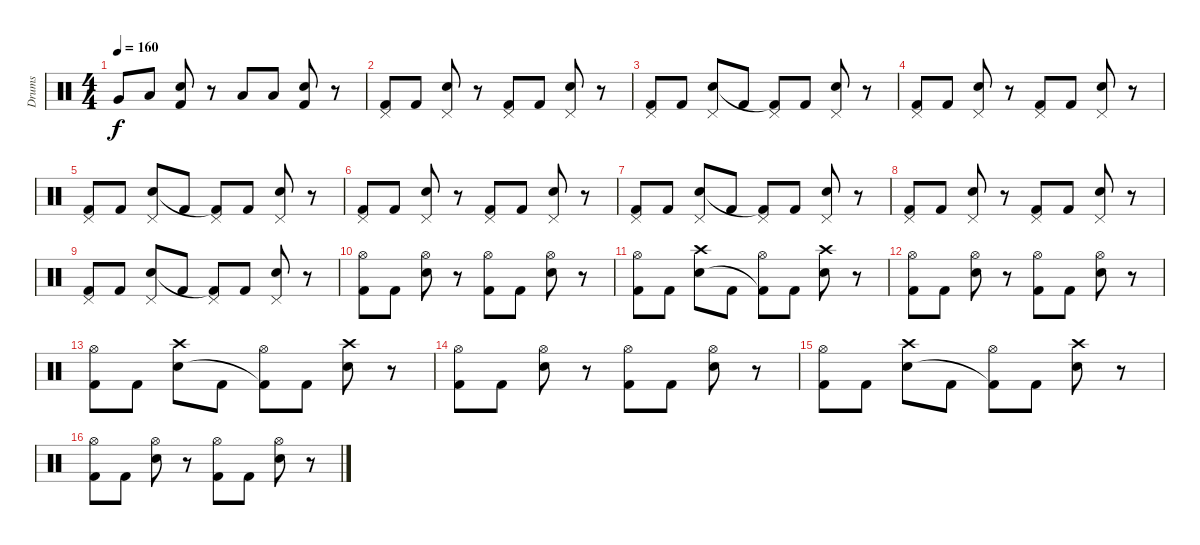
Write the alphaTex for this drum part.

\track ("Drums" "Drums") {instrument percussion}
\staff {score}
\articulation defaults
\ts (4 4)
\tempo 160
\clef neutral
\ks c "Very Low Tom (hit)".8{dy f} "Low Tom (hit)".8
("Snare (hit) 2" "Kick (hit) 2").8 r.8 "Low Tom (hit)".8 "Low Tom (hit)".8 ("Snare (hit) 2" "Kick (hit) 2").8 r.8 |
("Pedal Hi-Hat (hit)" "Kick (hit) 2").8 "Kick (hit) 2".8 ("Pedal Hi-Hat (hit)" "Snare (hit) 2").8 r.8 ("Pedal Hi-Hat (hit)" "Kick (hit) 2").8 "Kick (hit) 2".8 ("Pedal Hi-Hat (hit)" "Snare (hit) 2").8 r.8 |
("Pedal Hi-Hat (hit)" "Kick (hit) 2").8 "Kick (hit) 2".8 ("Pedal Hi-Hat (hit)" "Snare (hit) 2").8 "Kick (hit) 2".8 ("Pedal Hi-Hat (hit)" "Kick (hit) 2"{t}).8 "Kick (hit) 2".8 ("Pedal Hi-Hat (hit)" "Snare (hit) 2").8 r.8 |
("Pedal Hi-Hat (hit)" "Kick (hit) 2").8 "Kick (hit) 2".8 ("Pedal Hi-Hat (hit)" "Snare (hit) 2").8 r.8 ("Pedal Hi-Hat (hit)" "Kick (hit) 2").8 "Kick (hit) 2".8 ("Pedal Hi-Hat (hit)" "Snare (hit) 2").8 r.8 |
("Pedal Hi-Hat (hit)" "Kick (hit) 2").8 "Kick (hit) 2".8 ("Pedal Hi-Hat (hit)" "Snare (hit) 2").8 "Kick (hit) 2".8 ("Pedal Hi-Hat (hit)" "Kick (hit) 2"{t}).8 "Kick (hit) 2".8 ("Pedal Hi-Hat (hit)" "Snare (hit) 2").8 r.8 |
("Pedal Hi-Hat (hit)" "Kick (hit) 2").8 "Kick (hit) 2".8 ("Pedal Hi-Hat (hit)" "Snare (hit) 2").8 r.8 ("Pedal Hi-Hat (hit)" "Kick (hit) 2").8 "Kick (hit) 2".8 ("Pedal Hi-Hat (hit)" "Snare (hit) 2").8 r.8 |
("Pedal Hi-Hat (hit)" "Kick (hit) 2").8 "Kick (hit) 2".8 ("Pedal Hi-Hat (hit)" "Snare (hit) 2").8 "Kick (hit) 2".8 ("Pedal Hi-Hat (hit)" "Kick (hit) 2"{t}).8 "Kick (hit) 2".8 ("Pedal Hi-Hat (hit)" "Snare (hit) 2").8 r.8 |
("Pedal Hi-Hat (hit)" "Kick (hit) 2").8 "Kick (hit) 2".8 ("Pedal Hi-Hat (hit)" "Snare (hit) 2").8 r.8 ("Pedal Hi-Hat (hit)" "Kick (hit) 2").8 "Kick (hit) 2".8 ("Pedal Hi-Hat (hit)" "Snare (hit) 2").8 r.8 |
("Pedal Hi-Hat (hit)" "Kick (hit) 2").8 "Kick (hit) 2".8 ("Pedal Hi-Hat (hit)" "Snare (hit) 2").8 "Kick (hit) 2".8 ("Pedal Hi-Hat (hit)" "Kick (hit) 2"{t}).8 "Kick (hit) 2".8 ("Pedal Hi-Hat (hit)" "Snare (hit) 2").8 r.8 |
("Hi-Hat (open)" "Kick (hit) 2").8 "Kick (hit) 2".8 ("Hi-Hat (open)" "Snare (hit) 2").8 r.8 ("Hi-Hat (open)" "Kick (hit) 2").8 "Kick (hit) 2".8 ("Hi-Hat (open)" "Snare (hit) 2").8 r.8 |
("Hi-Hat (open)" "Kick (hit) 2").8 "Kick (hit) 2".8 ("Crash high (hit)" "Snare (hit) 2").8 "Kick (hit) 2".8 ("Hi-Hat (open)" "Kick (hit) 2"{t}).8 "Kick (hit) 2".8 ("Crash high (hit)" "Snare (hit) 2").8 r.8 |
("Hi-Hat (open)" "Kick (hit) 2").8 "Kick (hit) 2".8 ("Hi-Hat (open)" "Snare (hit) 2").8 r.8 ("Hi-Hat (open)" "Kick (hit) 2").8 "Kick (hit) 2".8 ("Hi-Hat (open)" "Snare (hit) 2").8 r.8 |
("Hi-Hat (open)" "Kick (hit) 2").8 "Kick (hit) 2".8 ("Crash high (hit)" "Snare (hit) 2").8 "Kick (hit) 2".8 ("Hi-Hat (open)" "Kick (hit) 2"{t}).8 "Kick (hit) 2".8 ("Crash high (hit)" "Snare (hit) 2").8 r.8 |
("Hi-Hat (open)" "Kick (hit) 2").8 "Kick (hit) 2".8 ("Hi-Hat (open)" "Snare (hit) 2").8 r.8 ("Hi-Hat (open)" "Kick (hit) 2").8 "Kick (hit) 2".8 ("Hi-Hat (open)" "Snare (hit) 2").8 r.8 |
("Hi-Hat (open)" "Kick (hit) 2").8 "Kick (hit) 2".8 ("Crash high (hit)" "Snare (hit) 2").8 "Kick (hit) 2".8 ("Hi-Hat (open)" "Kick (hit) 2"{t}).8 "Kick (hit) 2".8 ("Crash high (hit)" "Snare (hit) 2").8 r.8 |
("Hi-Hat (open)" "Kick (hit) 2").8 "Kick (hit) 2".8 ("Hi-Hat (open)" "Snare (hit) 2").8 r.8 ("Hi-Hat (open)" "Kick (hit) 2").8 "Kick (hit) 2".8 ("Hi-Hat (open)" "Snare (hit) 2").8 r.8
